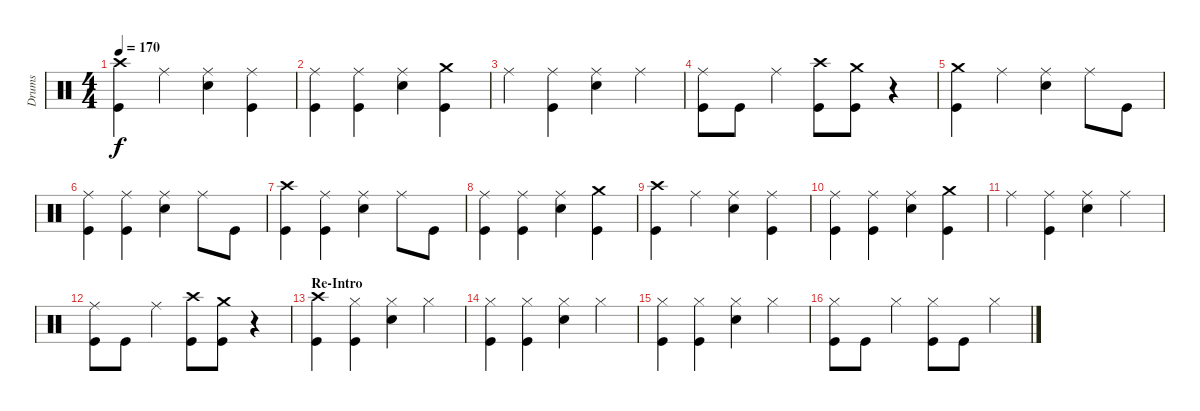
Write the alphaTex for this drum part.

\track ("Drums" "Drums") {instrument percussion}
\staff {score}
\articulation defaults
\ts (4 4)
\tempo 170
\clef neutral
\ks c
("Crash high (hit)" "Kick (hit)").4{dy f} "Ride (middle)".4 ("Ride (middle)" "Snare (hit) 2").4 ("Ride (middle)" "Kick (hit)").4 |
("Ride (middle)" "Kick (hit)").4 ("Ride (middle)" "Kick (hit)").4 ("Ride (middle)" "Snare (hit) 2").4 ("Crash medium (hit)" "Kick (hit)").4 |
"Ride (middle)".4 ("Ride (middle)" "Kick (hit)").4 ("Ride (middle)" "Snare (hit) 2").4 "Ride (middle)".4 |
("Ride (middle)" "Kick (hit)").8 "Kick (hit)".8 "Ride (middle)".4 ("Crash high (hit)" "Kick (hit)").8 ("Crash medium (hit)" "Kick (hit)").8 r.4 |
("Crash medium (hit)" "Kick (hit)").4 "Ride (middle)".4 ("Ride (middle)" "Snare (hit) 2").4 "Ride (middle)".8 "Kick (hit)".8 |
("Ride (middle)" "Kick (hit)").4 ("Ride (middle)" "Kick (hit)").4 ("Ride (middle)" "Snare (hit) 2").4 "Ride (middle)".8 "Kick (hit)".8 |
("Crash high (hit)" "Kick (hit)").4 ("Ride (middle)" "Kick (hit)").4 ("Ride (middle)" "Snare (hit) 2").4 "Ride (middle)".8 "Kick (hit)".8 |
("Ride (middle)" "Kick (hit)").4 ("Ride (middle)" "Kick (hit)").4 ("Ride (middle)" "Snare (hit) 2").4 ("Crash medium (hit)" "Kick (hit)").4 |
("Crash high (hit)" "Kick (hit)").4 "Ride (middle)".4 ("Ride (middle)" "Snare (hit) 2").4 ("Ride (middle)" "Kick (hit)").4 |
("Ride (middle)" "Kick (hit)").4 ("Ride (middle)" "Kick (hit)").4 ("Ride (middle)" "Snare (hit) 2").4 ("Crash medium (hit)" "Kick (hit)").4 |
"Ride (middle)".4 ("Ride (middle)" "Kick (hit)").4 ("Ride (middle)" "Snare (hit) 2").4 "Ride (middle)".4 |
("Ride (middle)" "Kick (hit)").8 "Kick (hit)".8 "Ride (middle)".4 ("Crash high (hit)" "Kick (hit)").8 ("Crash medium (hit)" "Kick (hit)").8 r.4 |
\section ("" "Re-Intro")
("Crash high (hit)" "Kick (hit)").4 ("Hi-Hat (closed)" "Kick (hit)").4 ("Hi-Hat (closed)" "Snare (hit) 2").4 "Hi-Hat (closed)".4 |
("Hi-Hat (closed)" "Kick (hit)").4 ("Hi-Hat (closed)" "Kick (hit)").4 ("Hi-Hat (closed)" "Snare (hit) 2").4 "Hi-Hat (closed)".4 |
("Hi-Hat (closed)" "Kick (hit)").4 ("Hi-Hat (closed)" "Kick (hit)").4 ("Hi-Hat (closed)" "Snare (hit) 2").4 "Hi-Hat (closed)".4 |
("Hi-Hat (closed)" "Kick (hit)").8 "Kick (hit)".8 "Hi-Hat (closed)".4 ("Hi-Hat (closed)" "Kick (hit)").8 "Kick (hit)".8 "Hi-Hat (closed)".4
